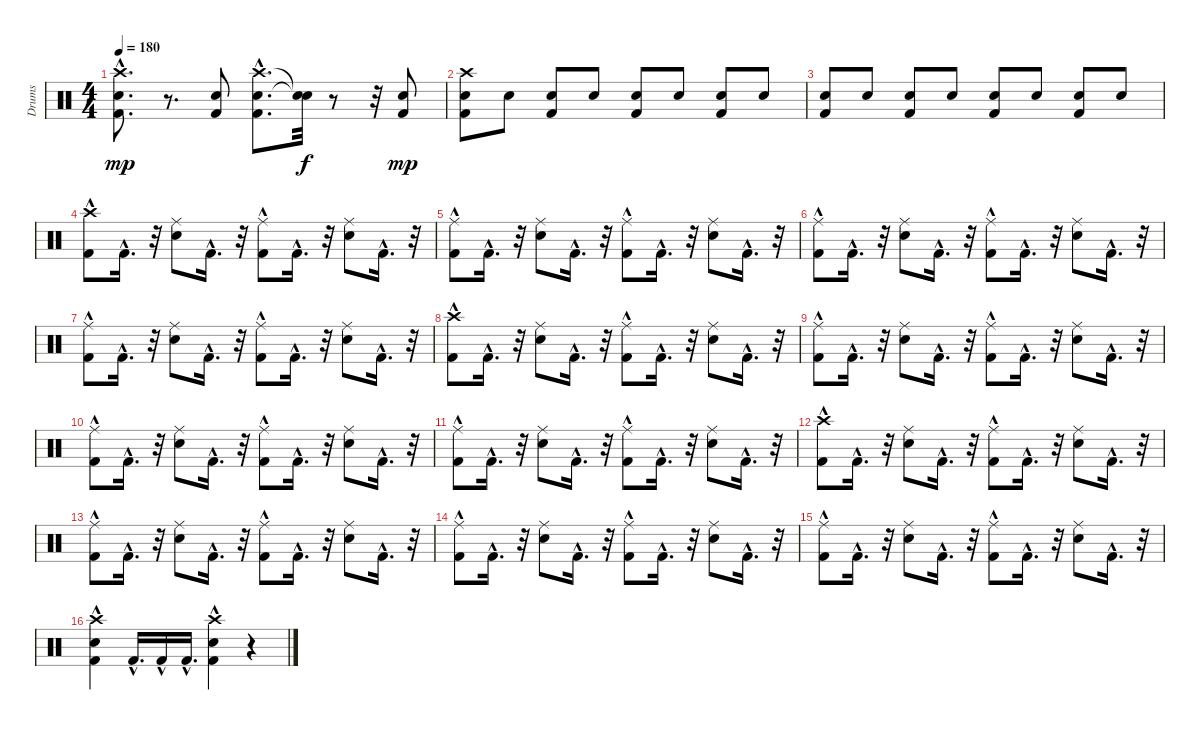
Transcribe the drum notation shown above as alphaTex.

\track ("Drums" "Drums") {instrument percussion}
\staff {score}
\articulation defaults
\ts (4 4)
\tempo 180
\clef neutral
\ks c
("Crash high (hit)" "Snare (hit) 2"{hac} "Kick (hit) 2"{hac}).8{d dy mp} r.8{d} ("Snare (hit) 2" "Kick (hit) 2").8 ("Crash high (hit)" "Snare (hit) 2"{hac} "Kick (hit) 2"{hac}).8{d} ("Snare (hit)"{t} "Snare (hit)"{t}).32{dy f} r.8 r.32 ("Snare (hit) 2" "Kick (hit) 2").8{dy mp} |
("Crash high (hit)" "Snare (hit) 2" "Kick (hit) 2").8 "Snare (hit) 2".8 ("Kick (hit) 2" "Snare (hit) 2").8 "Snare (hit) 2".8 ("Kick (hit) 2" "Snare (hit) 2").8 "Snare (hit) 2".8 ("Kick (hit) 2" "Snare (hit) 2").8 "Snare (hit) 2".8 |
("Kick (hit) 2" "Snare (hit) 2").8 "Snare (hit) 2".8 ("Kick (hit) 2" "Snare (hit) 2").8 "Snare (hit) 2".8 ("Kick (hit) 2" "Snare (hit) 2").8 "Snare (hit) 2".8 ("Kick (hit) 2" "Snare (hit) 2").8 "Snare (hit) 2".8 |
("Crash high (hit)" "Kick (hit) 2"{hac}).8 "Kick (hit) 2"{hac}.16{d} r.32 ("Ride (middle)" "Snare (hit) 2").8 "Kick (hit) 2"{hac}.16{d} r.32 ("Ride (middle)" "Kick (hit) 2"{hac}).8 "Kick (hit) 2"{hac}.16{d} r.32 ("Ride (middle)" "Snare (hit) 2").8 "Kick (hit) 2"{hac}.16{d} r.32 |
("Ride (middle)" "Kick (hit) 2"{hac}).8 "Kick (hit) 2"{hac}.16{d} r.32 ("Ride (middle)" "Snare (hit) 2").8 "Kick (hit) 2"{hac}.16{d} r.32 ("Ride (middle)" "Kick (hit) 2"{hac}).8 "Kick (hit) 2"{hac}.16{d} r.32 ("Ride (middle)" "Snare (hit) 2").8 "Kick (hit) 2"{hac}.16{d} r.32 |
("Ride (middle)" "Kick (hit) 2"{hac}).8 "Kick (hit) 2"{hac}.16{d} r.32 ("Ride (middle)" "Snare (hit) 2").8 "Kick (hit) 2"{hac}.16{d} r.32 ("Ride (middle)" "Kick (hit) 2"{hac}).8 "Kick (hit) 2"{hac}.16{d} r.32 ("Ride (middle)" "Snare (hit) 2").8 "Kick (hit) 2"{hac}.16{d} r.32 |
("Ride (middle)" "Kick (hit) 2"{hac}).8 "Kick (hit) 2"{hac}.16{d} r.32 ("Ride (middle)" "Snare (hit) 2").8 "Kick (hit) 2"{hac}.16{d} r.32 ("Ride (middle)" "Kick (hit) 2"{hac}).8 "Kick (hit) 2"{hac}.16{d} r.32 ("Ride (middle)" "Snare (hit) 2").8 "Kick (hit) 2"{hac}.16{d} r.32 |
("Crash high (hit)" "Kick (hit) 2"{hac}).8 "Kick (hit) 2"{hac}.16{d} r.32 ("Ride (middle)" "Snare (hit) 2").8 "Kick (hit) 2"{hac}.16{d} r.32 ("Ride (middle)" "Kick (hit) 2"{hac}).8 "Kick (hit) 2"{hac}.16{d} r.32 ("Ride (middle)" "Snare (hit) 2").8 "Kick (hit) 2"{hac}.16{d} r.32 |
("Ride (middle)" "Kick (hit) 2"{hac}).8 "Kick (hit) 2"{hac}.16{d} r.32 ("Ride (middle)" "Snare (hit) 2").8 "Kick (hit) 2"{hac}.16{d} r.32 ("Ride (middle)" "Kick (hit) 2"{hac}).8 "Kick (hit) 2"{hac}.16{d} r.32 ("Ride (middle)" "Snare (hit) 2").8 "Kick (hit) 2"{hac}.16{d} r.32 |
("Ride (middle)" "Kick (hit) 2"{hac}).8 "Kick (hit) 2"{hac}.16{d} r.32 ("Ride (middle)" "Snare (hit) 2").8 "Kick (hit) 2"{hac}.16{d} r.32 ("Ride (middle)" "Kick (hit) 2"{hac}).8 "Kick (hit) 2"{hac}.16{d} r.32 ("Ride (middle)" "Snare (hit) 2").8 "Kick (hit) 2"{hac}.16{d} r.32 |
("Ride (middle)" "Kick (hit) 2"{hac}).8 "Kick (hit) 2"{hac}.16{d} r.32 ("Ride (middle)" "Snare (hit) 2").8 "Kick (hit) 2"{hac}.16{d} r.32 ("Ride (middle)" "Kick (hit) 2"{hac}).8 "Kick (hit) 2"{hac}.16{d} r.32 ("Ride (middle)" "Snare (hit) 2").8 "Kick (hit) 2"{hac}.16{d} r.32 |
("Crash high (hit)" "Kick (hit) 2"{hac}).8 "Kick (hit) 2"{hac}.16{d} r.32 ("Ride (middle)" "Snare (hit) 2").8 "Kick (hit) 2"{hac}.16{d} r.32 ("Ride (middle)" "Kick (hit) 2"{hac}).8 "Kick (hit) 2"{hac}.16{d} r.32 ("Ride (middle)" "Snare (hit) 2").8 "Kick (hit) 2"{hac}.16{d} r.32 |
("Ride (middle)" "Kick (hit) 2"{hac}).8 "Kick (hit) 2"{hac}.16{d} r.32 ("Ride (middle)" "Snare (hit) 2").8 "Kick (hit) 2"{hac}.16{d} r.32 ("Ride (middle)" "Kick (hit) 2"{hac}).8 "Kick (hit) 2"{hac}.16{d} r.32 ("Ride (middle)" "Snare (hit) 2").8 "Kick (hit) 2"{hac}.16{d} r.32 |
("Ride (middle)" "Kick (hit) 2"{hac}).8 "Kick (hit) 2"{hac}.16{d} r.32 ("Ride (middle)" "Snare (hit) 2").8 "Kick (hit) 2"{hac}.16{d} r.32 ("Ride (middle)" "Kick (hit) 2"{hac}).8 "Kick (hit) 2"{hac}.16{d} r.32 ("Ride (middle)" "Snare (hit) 2").8 "Kick (hit) 2"{hac}.16{d} r.32 |
("Ride (middle)" "Kick (hit) 2"{hac}).8 "Kick (hit) 2"{hac}.16{d} r.32 ("Ride (middle)" "Snare (hit) 2").8 "Kick (hit) 2"{hac}.16{d} r.32 ("Ride (middle)" "Kick (hit) 2"{hac}).8 "Kick (hit) 2"{hac}.16{d} r.32 ("Ride (middle)" "Snare (hit) 2").8 "Kick (hit) 2"{hac}.16{d} r.32 |
("Crash high (hit)" "Snare (hit) 2"{hac} "Kick (hit) 2"{hac}).4 "Kick (hit) 2"{hac}.16{d} "Kick (hit) 2"{hac}.16 "Kick (hit) 2"{hac}.16{d} ("Kick (hit) 2"{hac} "Snare (hit) 2"{hac} "Crash high (hit)").4 r.4
